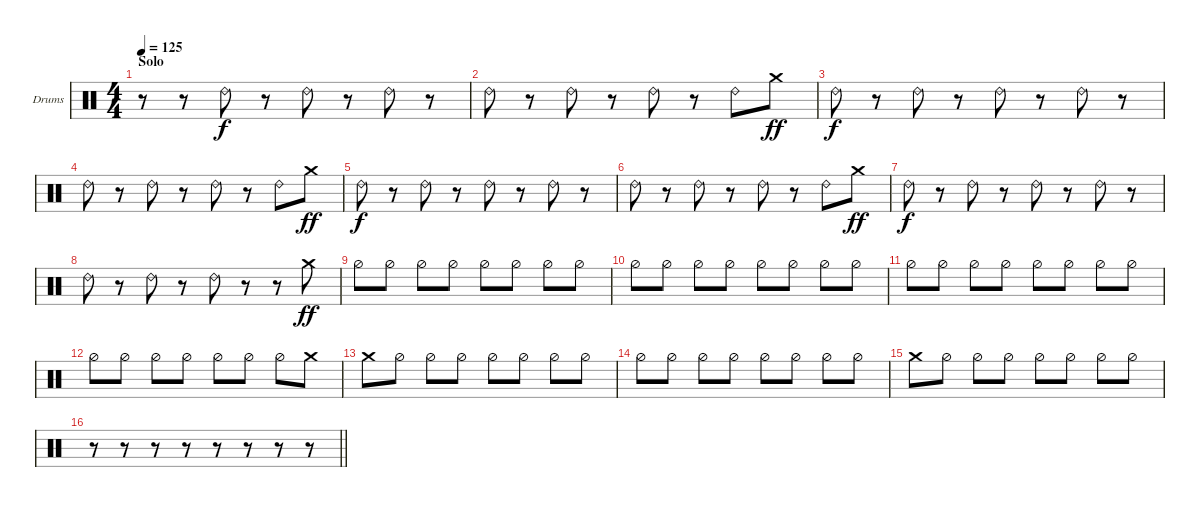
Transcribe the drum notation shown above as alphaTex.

\bracketExtendMode groupsimilarinstruments
\firstSystemTrackNameOrientation horizontal
\otherSystemsTrackNameOrientation horizontal
\track ("Nick Menza" "Drums") {instrument percussion}
\staff {score}
\articulation defaults
\ts (4 4)
\section ("" "Solo")
\tempo 125
\clef neutral
\scale
0.333333
\ks c
r.8{dy ff} r.8 "Ride (bell) 2".8{dy f} r.8 "Ride (bell) 2".8 r.8 "Ride (bell) 2".8 r.8 |
\scale
0.333333 "Ride (bell) 2".8 r.8 "Ride (bell) 2".8 r.8 "Ride (bell) 2".8 r.8 "Ride (bell) 2".8 "Crash medium (hit)".8{dy ff} |
\scale
0.333333 "Ride (bell) 2".8{dy f} r.8 "Ride (bell) 2".8 r.8 "Ride (bell) 2".8 r.8 "Ride (bell) 2".8 r.8 |
\scale
0.333333 "Ride (bell) 2".8 r.8 "Ride (bell) 2".8 r.8 "Ride (bell) 2".8 r.8 "Ride (bell) 2".8 "Crash medium (hit)".8{dy ff} |
\scale
0.333333 "Ride (bell) 2".8{dy f} r.8 "Ride (bell) 2".8 r.8 "Ride (bell) 2".8 r.8 "Ride (bell) 2".8 r.8 |
\scale
0.333333 "Ride (bell) 2".8 r.8 "Ride (bell) 2".8 r.8 "Ride (bell) 2".8 r.8 "Ride (bell) 2".8 "Crash medium (hit)".8{dy ff} |
\scale
0.333333 "Ride (bell) 2".8{dy f} r.8 "Ride (bell) 2".8 r.8 "Ride (bell) 2".8 r.8 "Ride (bell) 2".8 r.8 |
\scale
0.333333 "Ride (bell) 2".8 r.8 "Ride (bell) 2".8 r.8 "Ride (bell) 2".8 r.8 r.8 "Crash medium (hit)".8{dy ff} |
\scale
0.333333 "Hi-Hat (half)".8 "Hi-Hat (half)".8 "Hi-Hat (half)".8 "Hi-Hat (half)".8 "Hi-Hat (half)".8 "Hi-Hat (half)".8 "Hi-Hat (half)".8 "Hi-Hat (half)".8 |
\scale
0.333333 "Hi-Hat (half)".8 "Hi-Hat (half)".8 "Hi-Hat (half)".8 "Hi-Hat (half)".8 "Hi-Hat (half)".8 "Hi-Hat (half)".8 "Hi-Hat (half)".8 "Hi-Hat (half)".8 |
\scale
0.333333 "Hi-Hat (half)".8 "Hi-Hat (half)".8 "Hi-Hat (half)".8 "Hi-Hat (half)".8 "Hi-Hat (half)".8 "Hi-Hat (half)".8 "Hi-Hat (half)".8 "Hi-Hat (half)".8 |
\scale
0.333333 "Hi-Hat (half)".8 "Hi-Hat (half)".8 "Hi-Hat (half)".8 "Hi-Hat (half)".8 "Hi-Hat (half)".8 "Hi-Hat (half)".8 "Hi-Hat (half)".8 "Crash medium (hit)".8 |
\scale
0.333333 "Crash medium (hit)".8 "Hi-Hat (half)".8 "Hi-Hat (half)".8 "Hi-Hat (half)".8 "Hi-Hat (half)".8 "Hi-Hat (half)".8 "Hi-Hat (half)".8 "Hi-Hat (half)".8 |
\scale
0.333333 "Hi-Hat (half)".8 "Hi-Hat (half)".8 "Hi-Hat (half)".8 "Hi-Hat (half)".8 "Hi-Hat (half)".8 "Hi-Hat (half)".8 "Hi-Hat (half)".8 "Hi-Hat (half)".8 |
\scale
0.333333 "Crash medium (hit)".8 "Hi-Hat (half)".8 "Hi-Hat (half)".8 "Hi-Hat (half)".8 "Hi-Hat (half)".8 "Hi-Hat (half)".8 "Hi-Hat (half)".8 "Hi-Hat (half)".8 |
\scale
0.333333
\barLineRight lightlight
r.8 r.8 r.8 r.8 r.8 r.8 r.8 r.8
